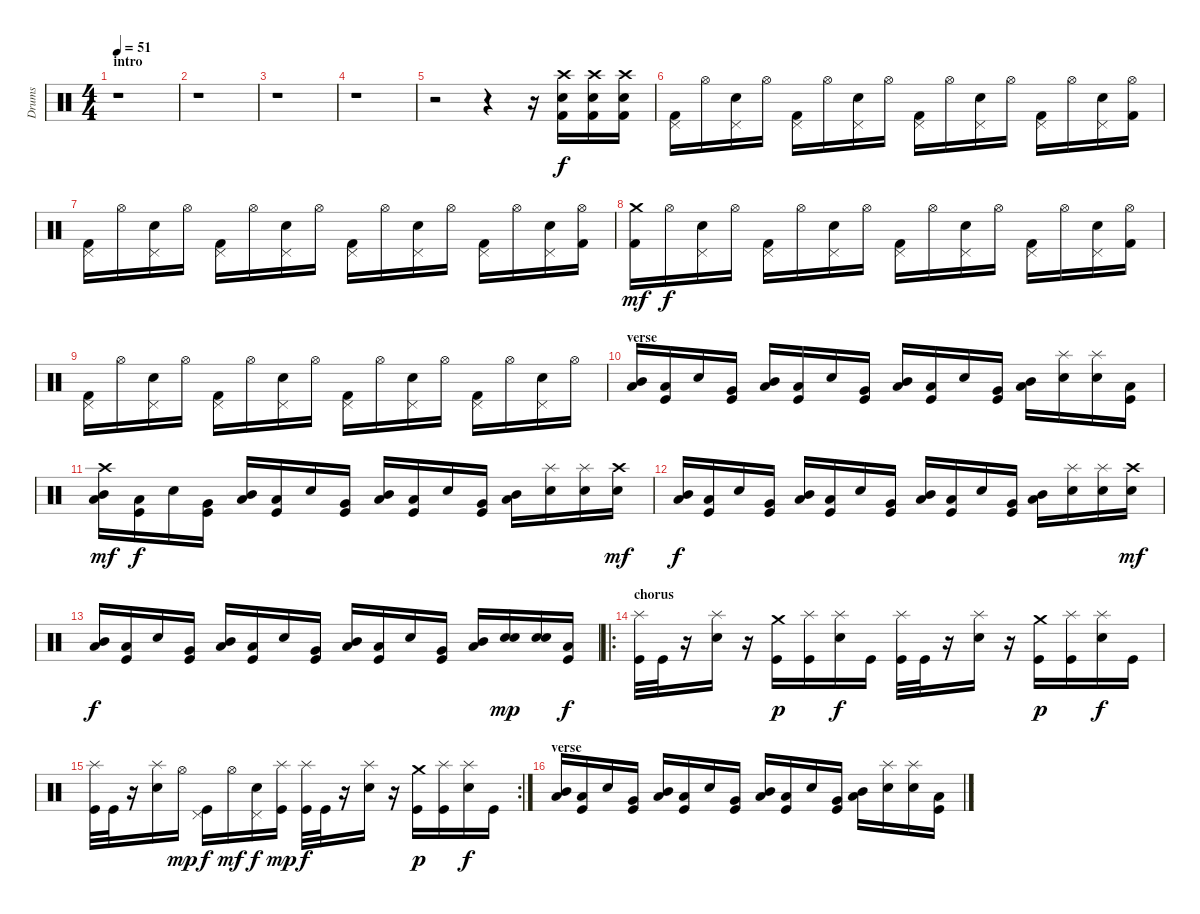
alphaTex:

\track ("Drums" "Drums") {instrument percussion}
\staff {score}
\articulation defaults
\ts (4 4)
\section ("" "intro")
\tempo 51
\clef neutral
\ks c
r.1{dy f} |
r.1 |
r.1 |
r.1 |
r.2 r.4 r.16 ("Crash high (hit)" "Snare (hit) 2" "Kick (hit) 2").16 ("Crash high (hit)" "Snare (hit) 2" "Kick (hit) 2").16 ("Crash high (hit)" "Snare (hit) 2" "Kick (hit) 2").16 |
("Pedal Hi-Hat (hit)" "Kick (hit) 2").16 "Hi-Hat (open)".16 ("Pedal Hi-Hat (hit)" "Snare (hit) 2").16 "Hi-Hat (open)".16 ("Pedal Hi-Hat (hit)" "Kick (hit) 2").16 "Hi-Hat (open)".16 ("Pedal Hi-Hat (hit)" "Snare (hit) 2").16 "Hi-Hat (open)".16 ("Pedal Hi-Hat (hit)" "Kick (hit) 2").16 "Hi-Hat (open)".16 ("Pedal Hi-Hat (hit)" "Snare (hit) 2").16 "Hi-Hat (open)".16 ("Pedal Hi-Hat (hit)" "Kick (hit) 2").16 "Hi-Hat (open)".16 ("Pedal Hi-Hat (hit)" "Snare (hit) 2").16 ("Hi-Hat (open)" "Kick (hit) 2").16 |
("Pedal Hi-Hat (hit)" "Kick (hit) 2").16 "Hi-Hat (open)".16 ("Pedal Hi-Hat (hit)" "Snare (hit) 2").16 "Hi-Hat (open)".16 ("Pedal Hi-Hat (hit)" "Kick (hit) 2").16 "Hi-Hat (open)".16 ("Pedal Hi-Hat (hit)" "Snare (hit) 2").16 "Hi-Hat (open)".16 ("Pedal Hi-Hat (hit)" "Kick (hit) 2").16 "Hi-Hat (open)".16 ("Pedal Hi-Hat (hit)" "Snare (hit) 2").16 "Hi-Hat (open)".16 ("Pedal Hi-Hat (hit)" "Kick (hit) 2").16 "Hi-Hat (open)".16 ("Pedal Hi-Hat (hit)" "Snare (hit) 2").16 ("Hi-Hat (open)" "Kick (hit) 2").16 |
("Crash medium (hit)" "Kick (hit) 2").16{dy mf} "Hi-Hat (open)".16{dy f} ("Pedal Hi-Hat (hit)" "Snare (hit) 2").16 "Hi-Hat (open)".16 ("Pedal Hi-Hat (hit)" "Kick (hit) 2").16 "Hi-Hat (open)".16 ("Pedal Hi-Hat (hit)" "Snare (hit) 2").16 "Hi-Hat (open)".16 ("Pedal Hi-Hat (hit)" "Kick (hit) 2").16 "Hi-Hat (open)".16 ("Pedal Hi-Hat (hit)" "Snare (hit) 2").16 "Hi-Hat (open)".16 ("Pedal Hi-Hat (hit)" "Kick (hit) 2").16 "Hi-Hat (open)".16 ("Pedal Hi-Hat (hit)" "Snare (hit) 2").16 ("Hi-Hat (open)" "Kick (hit) 2").16 |
("Pedal Hi-Hat (hit)" "Kick (hit) 2").16 "Hi-Hat (open)".16 ("Pedal Hi-Hat (hit)" "Snare (hit) 2").16 "Hi-Hat (open)".16 ("Pedal Hi-Hat (hit)" "Kick (hit) 2").16 "Hi-Hat (open)".16 ("Pedal Hi-Hat (hit)" "Snare (hit) 2").16 "Hi-Hat (open)".16 ("Pedal Hi-Hat (hit)" "Kick (hit) 2").16 "Hi-Hat (open)".16 ("Pedal Hi-Hat (hit)" "Snare (hit) 2").16 "Hi-Hat (open)".16 ("Pedal Hi-Hat (hit)" "Kick (hit) 2").16 "Hi-Hat (open)".16 ("Pedal Hi-Hat (hit)" "Snare (hit) 2").16 "Hi-Hat (open)".16 |
\section ("" "verse")
("Mid Tom (hit)" "Low Floor Tom (hit)").16 ("Low Floor Tom (hit)" "Kick (hit)").16 "Snare (hit) 2".16 ("Very Low Tom (hit)" "Kick (hit)").16 ("Mid Tom (hit)" "Low Floor Tom (hit)").16 ("Low Floor Tom (hit)" "Kick (hit)").16 "Snare (hit) 2".16 ("Very Low Tom (hit)" "Kick (hit)").16 ("Mid Tom (hit)" "Low Floor Tom (hit)").16 ("Low Floor Tom (hit)" "Kick (hit)").16 "Snare (hit) 2".16 ("Very Low Tom (hit)" "Kick (hit)").16 ("Mid Tom (hit)" "Low Floor Tom (hit)").16 ("Splash (hit)" "Snare (hit) 2").16 ("Splash (hit)" "Snare (hit) 2").16 ("Low Tom (hit)" "Kick (hit)").16 |
("Crash high (hit)" "Mid Tom (hit)" "Low Floor Tom (hit)").16{dy mf} ("Low Floor Tom (hit)" "Kick (hit)").16{dy f} "Snare (hit) 2".16 ("Very Low Tom (hit)" "Kick (hit)").16 ("Mid Tom (hit)" "Low Floor Tom (hit)").16 ("Low Floor Tom (hit)" "Kick (hit)").16 "Snare (hit) 2".16 ("Very Low Tom (hit)" "Kick (hit)").16 ("Mid Tom (hit)" "Low Floor Tom (hit)").16 ("Low Floor Tom (hit)" "Kick (hit)").16 "Snare (hit) 2".16 ("Very Low Tom (hit)" "Kick (hit)").16 ("Mid Tom (hit)" "Low Floor Tom (hit)").16 ("Splash (hit)" "Snare (hit) 2").16 ("Splash (hit)" "Snare (hit) 2").16 ("Crash high (hit)" "Snare (hit) 2").16{dy mf} |
("Mid Tom (hit)" "Low Floor Tom (hit)").16{dy f} ("Low Floor Tom (hit)" "Kick (hit)").16 "Snare (hit) 2".16 ("Very Low Tom (hit)" "Kick (hit)").16 ("Mid Tom (hit)" "Low Floor Tom (hit)").16 ("Low Floor Tom (hit)" "Kick (hit)").16 "Snare (hit) 2".16 ("Very Low Tom (hit)" "Kick (hit)").16 ("Mid Tom (hit)" "Low Floor Tom (hit)").16 ("Low Floor Tom (hit)" "Kick (hit)").16 "Snare (hit) 2".16 ("Very Low Tom (hit)" "Kick (hit)").16 ("Mid Tom (hit)" "Low Floor Tom (hit)").16 ("Splash (hit)" "Snare (hit) 2").16 ("Splash (hit)" "Snare (hit) 2").16 ("Crash high (hit)" "Snare (hit) 2").16{dy mf} |
("Mid Tom (hit)" "Low Floor Tom (hit)").16{dy f} ("Low Floor Tom (hit)" "Kick (hit)").16 "Snare (hit) 2".16 ("Very Low Tom (hit)" "Kick (hit)").16 ("Mid Tom (hit)" "Low Floor Tom (hit)").16 ("Low Floor Tom (hit)" "Kick (hit)").16 "Snare (hit) 2".16 ("Very Low Tom (hit)" "Kick (hit)").16 ("Mid Tom (hit)" "Low Floor Tom (hit)").16 ("Low Floor Tom (hit)" "Kick (hit)").16 "Snare (hit) 2".16 ("Very Low Tom (hit)" "Kick (hit)").16 ("Mid Tom (hit)" "Low Floor Tom (hit)").16 ("Snare (hit) 2" "Snare (hit) 2").16{bd 30 dy mp} ("Snare (hit) 2" "Snare (hit) 2").16{bd 30} ("Low Tom (hit)" "Kick (hit)").16{dy f} |
\ro
\section ("" "chorus")
("Splash (hit)" "Kick (hit)").32 "Kick (hit)".32 r.16 ("Splash (hit)" "Snare (hit) 2").16 r.16 ("Crash medium (hit)" "Kick (hit)").16{dy p} ("Splash (hit)" "Kick (hit)").16 ("Splash (hit)" "Snare (hit) 2").16{dy f} "Kick (hit)".16 ("Splash (hit)" "Kick (hit)").32 "Kick (hit)".32 r.16 ("Splash (hit)" "Snare (hit) 2").16 r.16 ("Crash medium (hit)" "Kick (hit)").16{dy p} ("Splash (hit)" "Kick (hit)").16 ("Splash (hit)" "Snare (hit) 2").16{dy f} "Kick (hit)".16 |
\rc 2
("Splash (hit)" "Kick (hit)").32 "Kick (hit)".32 r.16 ("Splash (hit)" "Snare (hit) 2").16 "Hi-Hat (open)".16{dy mp} ("Pedal Hi-Hat (hit)" "Kick (hit)").16{dy f} "Hi-Hat (open)".16{dy mf} ("Pedal Hi-Hat (hit)" "Snare (hit) 2").16{dy f} ("Splash (hit)" "Kick (hit)").16{dy mp} ("Splash (hit)" "Kick (hit)").32{dy f} "Kick (hit)".32 r.16 ("Splash (hit)" "Snare (hit) 2").16 r.16 ("Crash medium (hit)" "Kick (hit)").16{dy p} ("Splash (hit)" "Kick (hit)").16 ("Splash (hit)" "Snare (hit) 2").16{dy f} "Kick (hit)".16 |
\section ("" "verse")
("Mid Tom (hit)" "Low Floor Tom (hit)").16 ("Low Floor Tom (hit)" "Kick (hit)").16 "Snare (hit) 2".16 ("Very Low Tom (hit)" "Kick (hit)").16 ("Mid Tom (hit)" "Low Floor Tom (hit)").16 ("Low Floor Tom (hit)" "Kick (hit)").16 "Snare (hit) 2".16 ("Very Low Tom (hit)" "Kick (hit)").16 ("Mid Tom (hit)" "Low Floor Tom (hit)").16 ("Low Floor Tom (hit)" "Kick (hit)").16 "Snare (hit) 2".16 ("Very Low Tom (hit)" "Kick (hit)").16 ("Mid Tom (hit)" "Low Floor Tom (hit)").16 ("Splash (hit)" "Snare (hit) 2").16 ("Splash (hit)" "Snare (hit) 2").16 ("Low Tom (hit)" "Kick (hit)").16
